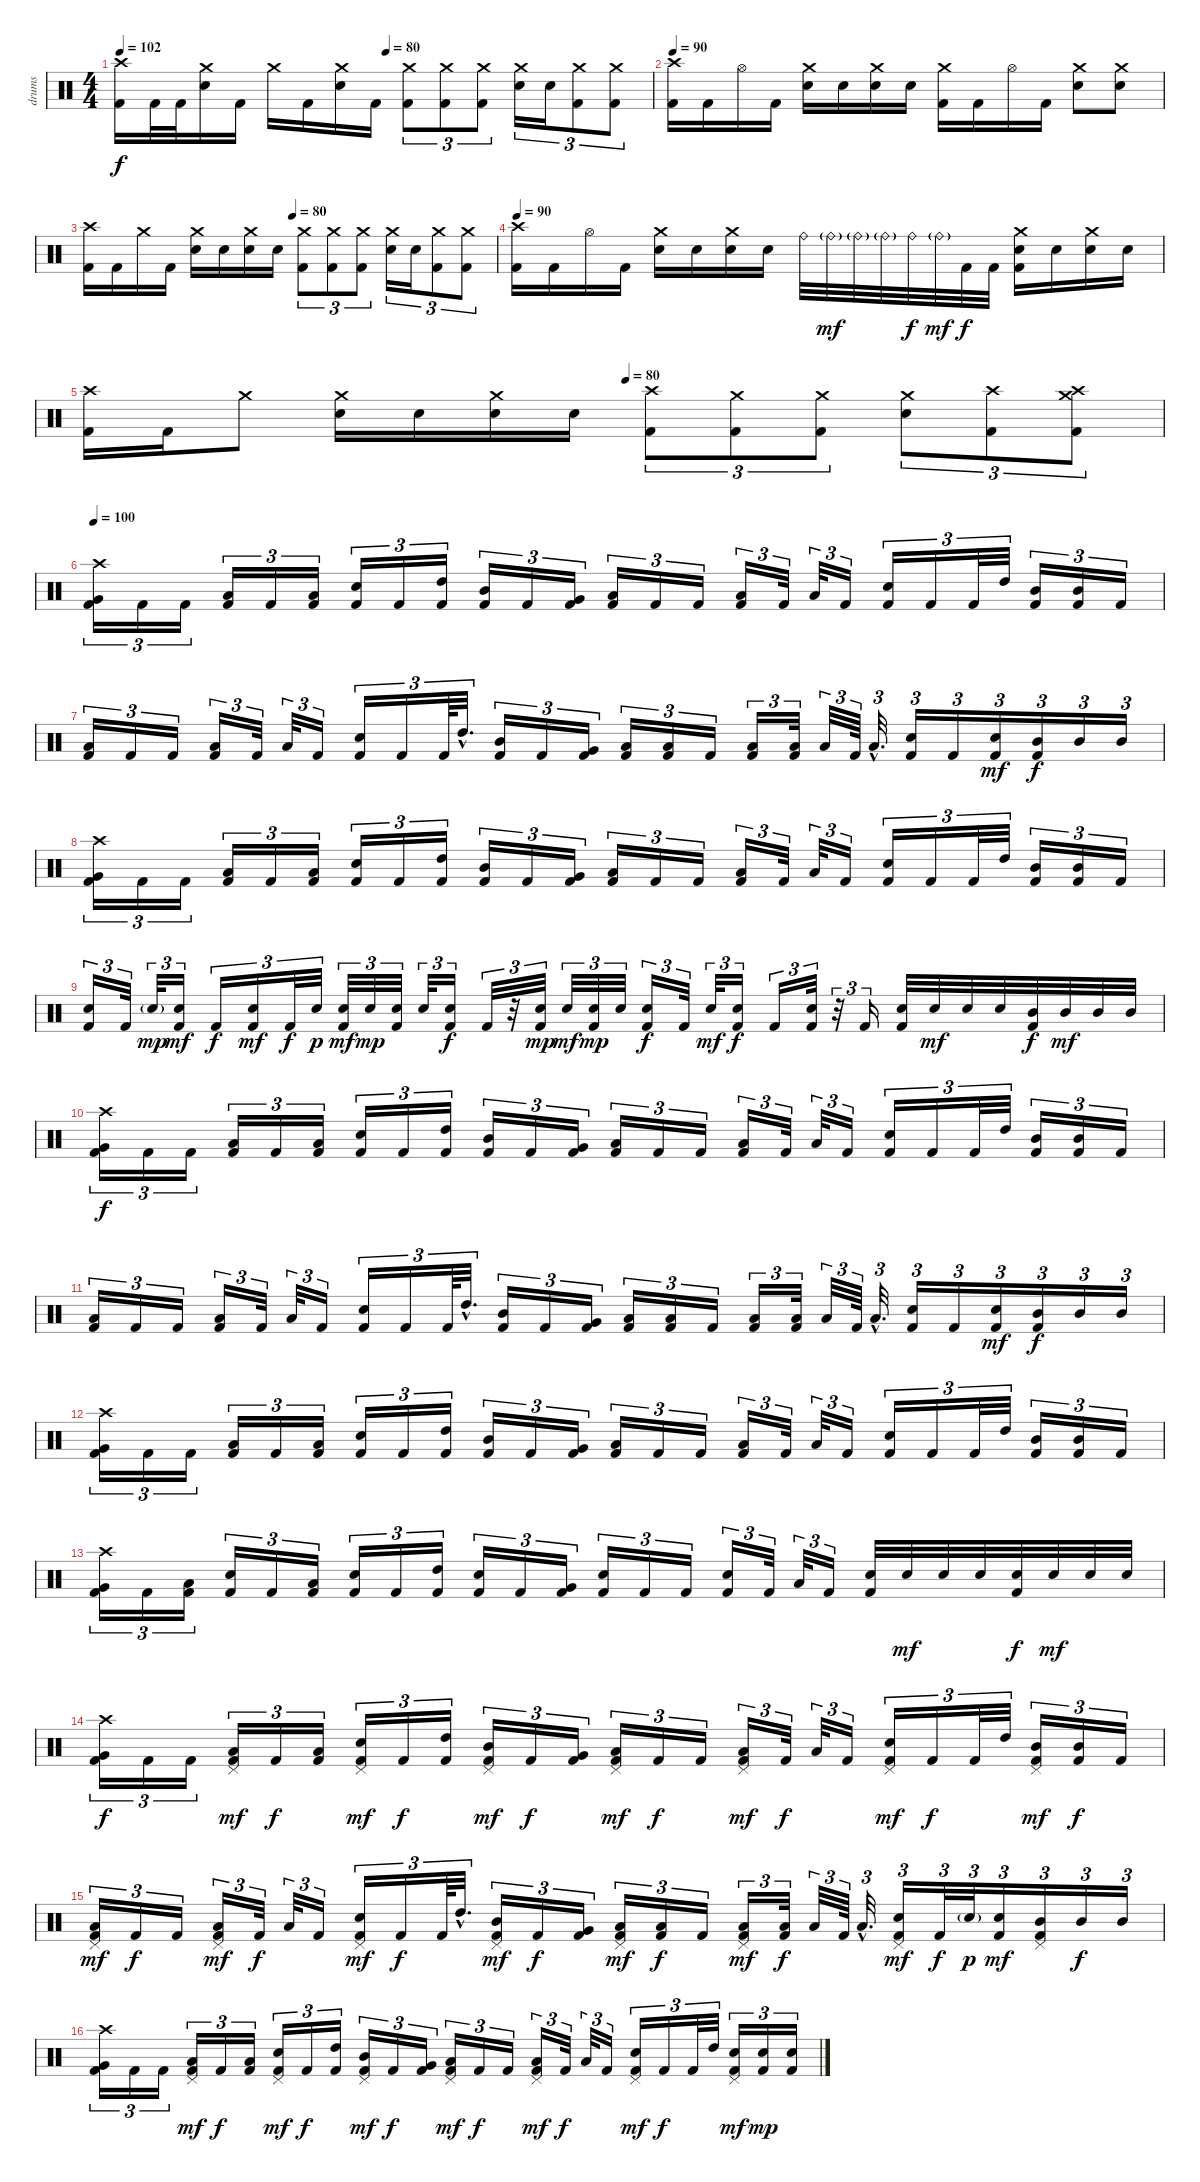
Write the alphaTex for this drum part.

\track ("drums" "drums") {instrument percussion}
\staff {score}
\articulation defaults
\ts (4 4)
\tempo 102
\tempo (80 0.5)
\clef neutral
\ks c
("Crash high (hit)" "Kick (hit) 2").16{dy f} "Kick (hit) 2".32 "Kick (hit) 2".32 ("Crash medium (hit)" "Electric Snare (hit)").16 "Kick (hit) 2".16 "Crash medium (hit)".16 "Kick (hit) 2".16 ("Crash medium (hit)" "Electric Snare (hit)").16 "Kick (hit) 2".16 ("Crash medium (hit)" "Kick (hit) 2").8{tu (3 2)} ("Crash medium (hit)" "Kick (hit) 2").8{tu (3 2)} ("Crash medium (hit)" "Kick (hit) 2").8{tu (3 2)} ("Crash medium (hit)" "Electric Snare (hit)").16{tu (3 2)} "Electric Snare (hit)".16{tu (3 2)} ("Crash medium (hit)" "Kick (hit) 2").8{tu (3 2)} ("Crash medium (hit)" "Kick (hit) 2").8{tu (3 2)} |
\tempo 90
("Crash high (hit)" "Kick (hit) 2").16 "Kick (hit) 2".16 "Hi-Hat (open)".16 "Kick (hit) 2".16 ("Crash medium (hit)" "Electric Snare (hit)").16 "Electric Snare (hit)".16 ("Crash medium (hit)" "Electric Snare (hit)").16 "Electric Snare (hit)".16 ("Crash medium (hit)" "Kick (hit) 2").16 "Kick (hit) 2".16 "Hi-Hat (open)".16 "Kick (hit) 2".16 ("Crash medium (hit)" "Electric Snare (hit)").8 ("Crash medium (hit)" "Electric Snare (hit)").8 |
\tempo (80 0.5)
("Crash high (hit)" "Kick (hit) 2").16 "Kick (hit) 2".16 "Crash medium (hit)".16 "Kick (hit) 2".16 ("Crash medium (hit)" "Electric Snare (hit)").16 "Electric Snare (hit)".16 ("Crash medium (hit)" "Electric Snare (hit)").16 "Electric Snare (hit)".16 ("Crash medium (hit)" "Kick (hit) 2").8{tu (3 2)} ("Crash medium (hit)" "Kick (hit) 2").8{tu (3 2)} ("Crash medium (hit)" "Kick (hit) 2").8{tu (3 2)} ("Crash medium (hit)" "Electric Snare (hit)").16{tu (3 2)} "Electric Snare (hit)".16{tu (3 2)} ("Crash medium (hit)" "Kick (hit) 2").8{tu (3 2)} ("Crash medium (hit)" "Kick (hit) 2").8{tu (3 2)} |
\tempo 90
("Crash high (hit)" "Kick (hit) 2").16 "Kick (hit) 2".16 "Hi-Hat (open)".16 "Kick (hit) 2".16 ("Crash medium (hit)" "Electric Snare (hit)").16 "Electric Snare (hit)".16 ("Crash medium (hit)" "Electric Snare (hit)").16 "Electric Snare (hit)".16 "Ride (bell)".32 "Ride (bell)"{g}.32{dy mf} "Ride (bell)"{g}.32 "Ride (bell)"{g}.32 "Ride (bell)".32{dy f} "Ride (bell)"{g}.32{dy mf} "Kick (hit) 2".32{dy f} "Kick (hit) 2".32 ("Crash medium (hit)" "Electric Snare (hit)" "Kick (hit) 2").16 "Electric Snare (hit)".16 ("Crash medium (hit)" "Electric Snare (hit)").16 "Electric Snare (hit)".16 |
\tempo (80 0.5)
("Crash high (hit)" "Kick (hit) 2").16 "Kick (hit) 2".16 "Crash medium (hit)".8 ("Crash medium (hit)" "Electric Snare (hit)").16 "Electric Snare (hit)".16 ("Crash medium (hit)" "Electric Snare (hit)").16 "Electric Snare (hit)".16 ("Crash high (hit)" "Kick (hit) 2").8{tu (3 2)} ("Crash medium (hit)" "Kick (hit) 2").8{tu (3 2)} ("Crash medium (hit)" "Kick (hit) 2").8{tu (3 2)} ("Crash medium (hit)" "Electric Snare (hit)").8{tu (3 2)} ("Crash high (hit)" "Kick (hit) 2").8{tu (3 2)} ("Crash medium (hit)" "Crash high (hit)" "Kick (hit) 2").8{tu (3 2)} |
\tempo 100
("Crash high (hit)" "Very Low Tom (hit)" "Kick (hit) 2").16{tu (3 2)} "Kick (hit) 2".16{tu (3 2)} "Kick (hit) 2".16{tu (3 2)} ("Low Floor Tom (hit)" "Kick (hit) 2").16{tu (3 2)} "Kick (hit) 2".16{tu (3 2)} ("Low Tom (hit)" "Kick (hit) 2").16{tu (3 2)} ("Electric Snare (hit)" "Kick (hit) 2").16{tu (3 2)} "Kick (hit) 2".16{tu (3 2)} ("High Tom (hit)" "Kick (hit) 2").16{tu (3 2)} ("Mid Tom (hit)" "Kick (hit) 2").16{tu (3 2)} "Kick (hit) 2".16{tu (3 2)} ("Very Low Tom (hit)" "Kick (hit) 2").16{tu (3 2)} ("Low Floor Tom (hit)" "Kick (hit) 2").16{tu (3 2)} "Kick (hit) 2".16{tu (3 2)} "Kick (hit) 2".16{tu (3 2)} ("Low Floor Tom (hit)" "Kick (hit) 2").16{tu (3 2)} "Kick (hit) 2".32{tu (3 2)} "Low Floor Tom (hit)".32{tu (3 2)} "Kick (hit) 2".16{tu (3 2)} ("Electric Snare (hit)" "Kick (hit) 2").16{tu (3 2)} "Kick (hit) 2".16{tu (3 2)} "Kick (hit) 2".32{tu (3 2)} "High Tom (hit)".32{tu (3 2)} ("Mid Tom (hit)" "Kick (hit) 2").16{tu (3 2)} ("Mid Tom (hit)" "Kick (hit) 2").16{tu (3 2)} "Kick (hit) 2".16{tu (3 2)} |
("Low Floor Tom (hit)" "Kick (hit) 2").16{tu (3 2)} "Kick (hit) 2".16{tu (3 2)} "Kick (hit) 2".16{tu (3 2)} ("Low Floor Tom (hit)" "Kick (hit) 2").16{tu (3 2)} "Kick (hit) 2".32{tu (3 2)} "Low Floor Tom (hit)".32{tu (3 2)} "Kick (hit) 2".16{tu (3 2)} ("Electric Snare (hit)" "Kick (hit) 2").16{tu (3 2)} "Kick (hit) 2".16{tu (3 2)} "Kick (hit) 2".64{tu (3 2)} "High Tom (hit)"{hac}.32{d tu (3 2)} ("Mid Tom (hit)" "Kick (hit) 2").16{tu (3 2)} "Kick (hit) 2".16{tu (3 2)} ("Very Low Tom (hit)" "Kick (hit) 2").16{tu (3 2)} ("Low Floor Tom (hit)" "Kick (hit) 2").16{tu (3 2)} ("Low Floor Tom (hit)" "Kick (hit) 2").16{tu (3 2)} "Kick (hit) 2".16{tu (3 2)} ("Low Floor Tom (hit)" "Kick (hit) 2").16{tu (3 2)} ("Low Floor Tom (hit)" "Kick (hit) 2").32{tu (3 2)} "Low Floor Tom (hit)".32{tu (3 2)} "Kick (hit) 2".64{tu (3 2)} "Low Floor Tom (hit)"{hac}.32{d tu (3 2)} ("Electric Snare (hit)" "Kick (hit) 2").16{tu (3 2)} "Kick (hit) 2".16{tu (3 2)} ("Electric Snare (hit)" "Kick (hit) 2").16{tu (3 2) dy mf} ("Mid Tom (hit)" "Kick (hit) 2").16{tu (3 2) dy f} "Mid Tom (hit)".16{tu (3 2)} "Mid Tom (hit)".16{tu (3 2)} |
("Crash high (hit)" "Very Low Tom (hit)" "Kick (hit) 2").16{tu (3 2)} "Kick (hit) 2".16{tu (3 2)} "Kick (hit) 2".16{tu (3 2)} ("Low Floor Tom (hit)" "Kick (hit) 2").16{tu (3 2)} "Kick (hit) 2".16{tu (3 2)} ("Low Tom (hit)" "Kick (hit) 2").16{tu (3 2)} ("Electric Snare (hit)" "Kick (hit) 2").16{tu (3 2)} "Kick (hit) 2".16{tu (3 2)} ("High Tom (hit)" "Kick (hit) 2").16{tu (3 2)} ("Mid Tom (hit)" "Kick (hit) 2").16{tu (3 2)} "Kick (hit) 2".16{tu (3 2)} ("Very Low Tom (hit)" "Kick (hit) 2").16{tu (3 2)} ("Low Floor Tom (hit)" "Kick (hit) 2").16{tu (3 2)} "Kick (hit) 2".16{tu (3 2)} "Kick (hit) 2".16{tu (3 2)} ("Low Floor Tom (hit)" "Kick (hit) 2").16{tu (3 2)} "Kick (hit) 2".32{tu (3 2)} "Low Floor Tom (hit)".32{tu (3 2)} "Kick (hit) 2".16{tu (3 2)} ("Electric Snare (hit)" "Kick (hit) 2").16{tu (3 2)} "Kick (hit) 2".16{tu (3 2)} "Kick (hit) 2".32{tu (3 2)} "High Tom (hit)".32{tu (3 2)} ("Mid Tom (hit)" "Kick (hit) 2").16{tu (3 2)} ("Mid Tom (hit)" "Kick (hit) 2").16{tu (3 2)} "Kick (hit) 2".16{tu (3 2)} |
("Electric Snare (hit)" "Kick (hit) 2").16{tu (3 2)} "Kick (hit) 2".32{tu (3 2)} "Electric Snare (hit)"{g}.32{tu (3 2) dy mp} ("Electric Snare (hit)" "Kick (hit) 2").16{tu (3 2) dy mf} "Kick (hit) 2".16{tu (3 2) dy f} ("Electric Snare (hit)" "Kick (hit) 2").16{tu (3 2) dy mf} "Kick (hit) 2".32{tu (3 2) dy f} "Electric Snare (hit)".32{tu (3 2) dy p} ("Electric Snare (hit)" "Kick (hit) 2").32{tu (3 2) dy mf} "Electric Snare (hit)".32{tu (3 2) dy mp} ("Electric Snare (hit)" "Kick (hit) 2").32{tu (3 2)} "Electric Snare (hit)".32{tu (3 2)} ("Electric Snare (hit)" "Kick (hit) 2").16{tu (3 2) dy f} "Kick (hit) 2".32{tu (3 2)} r.32{tu (3 2)} ("Electric Snare (hit)" "Kick (hit) 2").32{tu (3 2) dy mp} "Electric Snare (hit)".32{tu (3 2) dy mf} ("Electric Snare (hit)" "Kick (hit) 2").32{tu (3 2) dy mp} "Electric Snare (hit)".32{tu (3 2)} ("Electric Snare (hit)" "Kick (hit) 2").16{tu (3 2) dy f} "Kick (hit) 2".32{tu (3 2)} "Electric Snare (hit)".32{tu (3 2) dy mf} ("Electric Snare (hit)" "Kick (hit) 2").16{tu (3 2) dy f} "Kick (hit) 2".16{tu (3 2)} ("Electric Snare (hit)" "Kick (hit) 2").32{tu (3 2)} r.32{tu (3 2)} "Kick (hit) 2".16{tu (3 2)} ("Electric Snare (hit)" "Kick (hit) 2").32 "Electric Snare (hit)".32{dy mf} "Electric Snare (hit)".32 "Electric Snare (hit)".32 ("Mid Tom (hit)" "Kick (hit) 2").32{dy f} "Mid Tom (hit)".32{dy mf} "Mid Tom (hit)".32 "Mid Tom (hit)".32 |
("Crash high (hit)" "Very Low Tom (hit)" "Kick (hit) 2").16{tu (3 2) dy f} "Kick (hit) 2".16{tu (3 2)} "Kick (hit) 2".16{tu (3 2)} ("Low Floor Tom (hit)" "Kick (hit) 2").16{tu (3 2)} "Kick (hit) 2".16{tu (3 2)} ("Low Tom (hit)" "Kick (hit) 2").16{tu (3 2)} ("Electric Snare (hit)" "Kick (hit) 2").16{tu (3 2)} "Kick (hit) 2".16{tu (3 2)} ("High Tom (hit)" "Kick (hit) 2").16{tu (3 2)} ("Mid Tom (hit)" "Kick (hit) 2").16{tu (3 2)} "Kick (hit) 2".16{tu (3 2)} ("Very Low Tom (hit)" "Kick (hit) 2").16{tu (3 2)} ("Low Floor Tom (hit)" "Kick (hit) 2").16{tu (3 2)} "Kick (hit) 2".16{tu (3 2)} "Kick (hit) 2".16{tu (3 2)} ("Low Floor Tom (hit)" "Kick (hit) 2").16{tu (3 2)} "Kick (hit) 2".32{tu (3 2)} "Low Floor Tom (hit)".32{tu (3 2)} "Kick (hit) 2".16{tu (3 2)} ("Electric Snare (hit)" "Kick (hit) 2").16{tu (3 2)} "Kick (hit) 2".16{tu (3 2)} "Kick (hit) 2".32{tu (3 2)} "High Tom (hit)".32{tu (3 2)} ("Mid Tom (hit)" "Kick (hit) 2").16{tu (3 2)} ("Mid Tom (hit)" "Kick (hit) 2").16{tu (3 2)} "Kick (hit) 2".16{tu (3 2)} |
("Low Floor Tom (hit)" "Kick (hit) 2").16{tu (3 2)} "Kick (hit) 2".16{tu (3 2)} "Kick (hit) 2".16{tu (3 2)} ("Low Floor Tom (hit)" "Kick (hit) 2").16{tu (3 2)} "Kick (hit) 2".32{tu (3 2)} "Low Floor Tom (hit)".32{tu (3 2)} "Kick (hit) 2".16{tu (3 2)} ("Electric Snare (hit)" "Kick (hit) 2").16{tu (3 2)} "Kick (hit) 2".16{tu (3 2)} "Kick (hit) 2".64{tu (3 2)} "High Tom (hit)"{hac}.32{d tu (3 2)} ("Mid Tom (hit)" "Kick (hit) 2").16{tu (3 2)} "Kick (hit) 2".16{tu (3 2)} ("Very Low Tom (hit)" "Kick (hit) 2").16{tu (3 2)} ("Low Floor Tom (hit)" "Kick (hit) 2").16{tu (3 2)} ("Low Floor Tom (hit)" "Kick (hit) 2").16{tu (3 2)} "Kick (hit) 2".16{tu (3 2)} ("Low Floor Tom (hit)" "Kick (hit) 2").16{tu (3 2)} ("Low Floor Tom (hit)" "Kick (hit) 2").32{tu (3 2)} "Low Floor Tom (hit)".32{tu (3 2)} "Kick (hit) 2".64{tu (3 2)} "Low Floor Tom (hit)"{hac}.32{d tu (3 2)} ("Electric Snare (hit)" "Kick (hit) 2").16{tu (3 2)} "Kick (hit) 2".16{tu (3 2)} ("Electric Snare (hit)" "Kick (hit) 2").16{tu (3 2) dy mf} ("Mid Tom (hit)" "Kick (hit) 2").16{tu (3 2) dy f} "Mid Tom (hit)".16{tu (3 2)} "Mid Tom (hit)".16{tu (3 2)} |
("Crash high (hit)" "Very Low Tom (hit)" "Kick (hit) 2").16{tu (3 2)} "Kick (hit) 2".16{tu (3 2)} "Kick (hit) 2".16{tu (3 2)} ("Low Floor Tom (hit)" "Kick (hit) 2").16{tu (3 2)} "Kick (hit) 2".16{tu (3 2)} ("Low Tom (hit)" "Kick (hit) 2").16{tu (3 2)} ("Electric Snare (hit)" "Kick (hit) 2").16{tu (3 2)} "Kick (hit) 2".16{tu (3 2)} ("High Tom (hit)" "Kick (hit) 2").16{tu (3 2)} ("Mid Tom (hit)" "Kick (hit) 2").16{tu (3 2)} "Kick (hit) 2".16{tu (3 2)} ("Very Low Tom (hit)" "Kick (hit) 2").16{tu (3 2)} ("Low Floor Tom (hit)" "Kick (hit) 2").16{tu (3 2)} "Kick (hit) 2".16{tu (3 2)} "Kick (hit) 2".16{tu (3 2)} ("Low Floor Tom (hit)" "Kick (hit) 2").16{tu (3 2)} "Kick (hit) 2".32{tu (3 2)} "Low Floor Tom (hit)".32{tu (3 2)} "Kick (hit) 2".16{tu (3 2)} ("Electric Snare (hit)" "Kick (hit) 2").16{tu (3 2)} "Kick (hit) 2".16{tu (3 2)} "Kick (hit) 2".32{tu (3 2)} "High Tom (hit)".32{tu (3 2)} ("Mid Tom (hit)" "Kick (hit) 2").16{tu (3 2)} ("Mid Tom (hit)" "Kick (hit) 2").16{tu (3 2)} "Kick (hit) 2".16{tu (3 2)} |
("Crash high (hit)" "Very Low Tom (hit)" "Kick (hit) 2").16{tu (3 2)} "Kick (hit) 2".16{tu (3 2)} ("Low Floor Tom (hit)" "Kick (hit) 2").16{tu (3 2)} ("Electric Snare (hit)" "Kick (hit) 2").16{tu (3 2)} "Kick (hit) 2".16{tu (3 2)} ("Low Tom (hit)" "Kick (hit) 2").16{tu (3 2)} ("Electric Snare (hit)" "Kick (hit) 2").16{tu (3 2)} "Kick (hit) 2".16{tu (3 2)} ("High Tom (hit)" "Kick (hit) 2").16{tu (3 2)} ("Electric Snare (hit)" "Kick (hit) 2").16{tu (3 2)} "Kick (hit) 2".16{tu (3 2)} ("Very Low Tom (hit)" "Kick (hit) 2").16{tu (3 2)} ("Electric Snare (hit)" "Kick (hit) 2").16{tu (3 2)} "Kick (hit) 2".16{tu (3 2)} "Kick (hit) 2".16{tu (3 2)} ("Electric Snare (hit)" "Kick (hit) 2").16{tu (3 2)} "Kick (hit) 2".32{tu (3 2)} "Low Floor Tom (hit)".32{tu (3 2)} "Kick (hit) 2".16{tu (3 2)} ("Electric Snare (hit)" "Kick (hit) 2").32 "Electric Snare (hit)".32{dy mf} "Electric Snare (hit)".32 "Electric Snare (hit)".32 ("Electric Snare (hit)" "Kick (hit) 2").32{dy f} "Electric Snare (hit)".32{dy mf} "Electric Snare (hit)".32 "Electric Snare (hit)".32 |
("Crash high (hit)" "Very Low Tom (hit)" "Kick (hit) 2").16{tu (3 2) dy f} "Kick (hit) 2".16{tu (3 2)} "Kick (hit) 2".16{tu (3 2)} ("Pedal Hi-Hat (hit)" "Low Floor Tom (hit)" "Kick (hit) 2").16{tu (3 2) dy mf} "Kick (hit) 2".16{tu (3 2) dy f} ("Low Tom (hit)" "Kick (hit) 2").16{tu (3 2)} ("Pedal Hi-Hat (hit)" "Electric Snare (hit)" "Kick (hit) 2").16{tu (3 2) dy mf} "Kick (hit) 2".16{tu (3 2) dy f} ("High Tom (hit)" "Kick (hit) 2").16{tu (3 2)} ("Pedal Hi-Hat (hit)" "Mid Tom (hit)" "Kick (hit) 2").16{tu (3 2) dy mf} "Kick (hit) 2".16{tu (3 2) dy f} ("Very Low Tom (hit)" "Kick (hit) 2").16{tu (3 2)} ("Pedal Hi-Hat (hit)" "Low Floor Tom (hit)" "Kick (hit) 2").16{tu (3 2) dy mf} "Kick (hit) 2".16{tu (3 2) dy f} "Kick (hit) 2".16{tu (3 2)} ("Pedal Hi-Hat (hit)" "Low Floor Tom (hit)" "Kick (hit) 2").16{tu (3 2) dy mf} "Kick (hit) 2".32{tu (3 2) dy f} "Low Floor Tom (hit)".32{tu (3 2)} "Kick (hit) 2".16{tu (3 2)} ("Pedal Hi-Hat (hit)" "Electric Snare (hit)" "Kick (hit) 2").16{tu (3 2) dy mf} "Kick (hit) 2".16{tu (3 2) dy f} "Kick (hit) 2".32{tu (3 2)} "High Tom (hit)".32{tu (3 2)} ("Pedal Hi-Hat (hit)" "Mid Tom (hit)" "Kick (hit) 2").16{tu (3 2) dy mf} ("Mid Tom (hit)" "Kick (hit) 2").16{tu (3 2) dy f} "Kick (hit) 2".16{tu (3 2)} |
("Pedal Hi-Hat (hit)" "Low Floor Tom (hit)" "Kick (hit) 2").16{tu (3 2) dy mf} "Kick (hit) 2".16{tu (3 2) dy f} "Kick (hit) 2".16{tu (3 2)} ("Pedal Hi-Hat (hit)" "Low Floor Tom (hit)" "Kick (hit) 2").16{tu (3 2) dy mf} "Kick (hit) 2".32{tu (3 2) dy f} "Low Floor Tom (hit)".32{tu (3 2)} "Kick (hit) 2".16{tu (3 2)} ("Pedal Hi-Hat (hit)" "Electric Snare (hit)" "Kick (hit) 2").16{tu (3 2) dy mf} "Kick (hit) 2".16{tu (3 2) dy f} "Kick (hit) 2".64{tu (3 2)} "High Tom (hit)"{hac}.32{d tu (3 2)} ("Pedal Hi-Hat (hit)" "Mid Tom (hit)" "Kick (hit) 2").16{tu (3 2) dy mf} "Kick (hit) 2".16{tu (3 2) dy f} ("Very Low Tom (hit)" "Kick (hit) 2").16{tu (3 2)} ("Pedal Hi-Hat (hit)" "Low Floor Tom (hit)" "Kick (hit) 2").16{tu (3 2) dy mf} ("Low Floor Tom (hit)" "Kick (hit) 2").16{tu (3 2) dy f} "Kick (hit) 2".16{tu (3 2)} ("Pedal Hi-Hat (hit)" "Low Floor Tom (hit)" "Kick (hit) 2").16{tu (3 2) dy mf} ("Low Floor Tom (hit)" "Kick (hit) 2").32{tu (3 2) dy f} "Low Floor Tom (hit)".32{tu (3 2)} "Kick (hit) 2".64{tu (3 2)} "Low Floor Tom (hit)"{hac}.32{d tu (3 2)} ("Pedal Hi-Hat (hit)" "Electric Snare (hit)" "Kick (hit) 2").16{tu (3 2) dy mf} "Kick (hit) 2".32{tu (3 2) dy f} "Electric Snare (hit)"{g}.32{tu (3 2) dy p} ("Electric Snare (hit)" "Kick (hit) 2").16{tu (3 2) dy mf} ("Pedal Hi-Hat (hit)" "Mid Tom (hit)" "Kick (hit) 2").16{tu (3 2)} "Mid Tom (hit)".16{tu (3 2) dy f} "Mid Tom (hit)".16{tu (3 2)} |
("Crash high (hit)" "Very Low Tom (hit)" "Kick (hit) 2").16{tu (3 2)} "Kick (hit) 2".16{tu (3 2)} "Kick (hit) 2".16{tu (3 2)} ("Pedal Hi-Hat (hit)" "Low Floor Tom (hit)" "Kick (hit) 2").16{tu (3 2) dy mf} "Kick (hit) 2".16{tu (3 2) dy f} ("Low Tom (hit)" "Kick (hit) 2").16{tu (3 2)} ("Pedal Hi-Hat (hit)" "Electric Snare (hit)" "Kick (hit) 2").16{tu (3 2) dy mf} "Kick (hit) 2".16{tu (3 2) dy f} ("High Tom (hit)" "Kick (hit) 2").16{tu (3 2)} ("Pedal Hi-Hat (hit)" "Mid Tom (hit)" "Kick (hit) 2").16{tu (3 2) dy mf} "Kick (hit) 2".16{tu (3 2) dy f} ("Very Low Tom (hit)" "Kick (hit) 2").16{tu (3 2)} ("Pedal Hi-Hat (hit)" "Low Floor Tom (hit)" "Kick (hit) 2").16{tu (3 2) dy mf} "Kick (hit) 2".16{tu (3 2) dy f} "Kick (hit) 2".16{tu (3 2)} ("Pedal Hi-Hat (hit)" "Low Floor Tom (hit)" "Kick (hit) 2").16{tu (3 2) dy mf} "Kick (hit) 2".32{tu (3 2) dy f} "Low Floor Tom (hit)".32{tu (3 2)} "Kick (hit) 2".16{tu (3 2)} ("Pedal Hi-Hat (hit)" "Electric Snare (hit)" "Kick (hit) 2").16{tu (3 2) dy mf} "Kick (hit) 2".16{tu (3 2) dy f} "Kick (hit) 2".32{tu (3 2)} "High Tom (hit)".32{tu (3 2)} ("Pedal Hi-Hat (hit)" "Electric Snare (hit)" "Kick (hit) 2").16{tu (3 2) dy mf} ("Electric Snare (hit)" "Kick (hit) 2").16{tu (3 2) dy mp} ("Electric Snare (hit)" "Kick (hit) 2").16{tu (3 2)}
